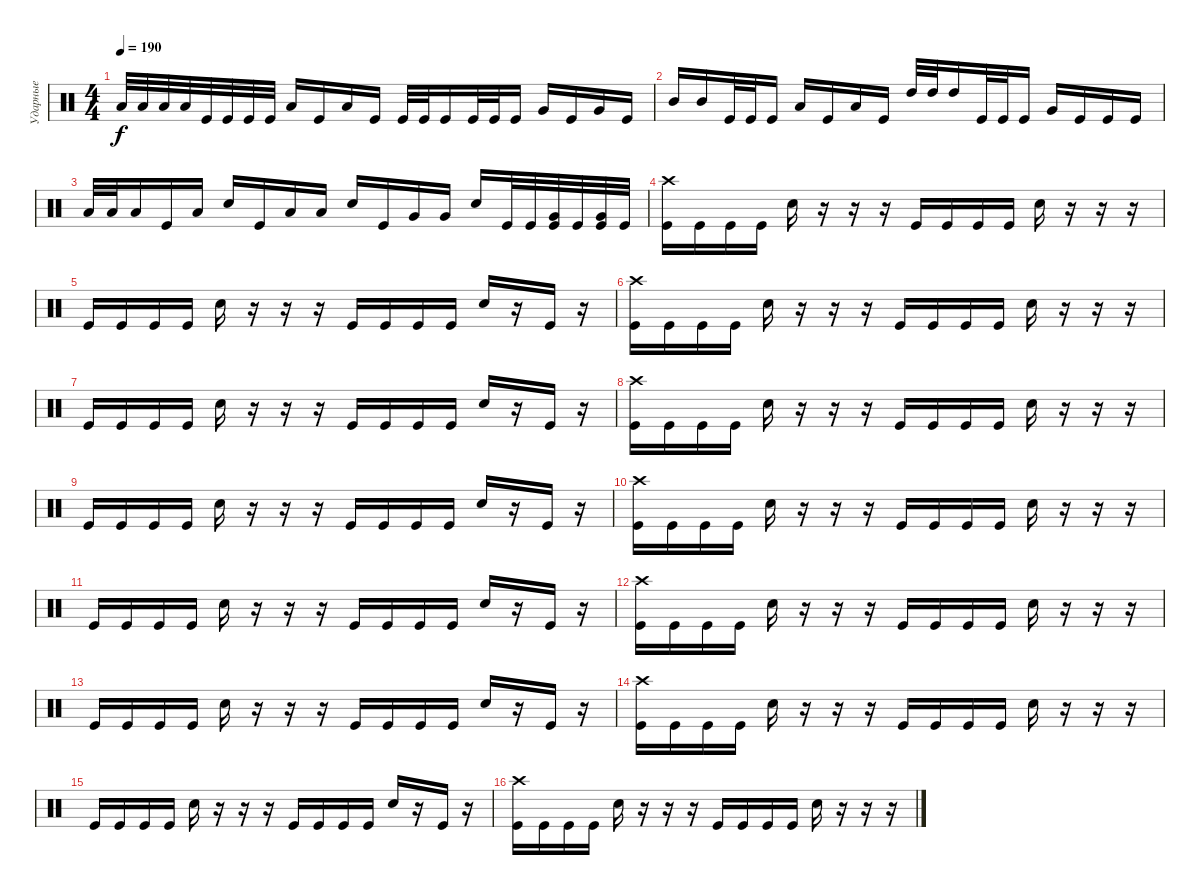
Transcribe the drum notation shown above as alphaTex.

\track ("Ударные" "Ударные") {instrument percussion}
\staff {score}
\articulation defaults
\ts (4 4)
\tempo 190
\clef neutral
\ks c "Low Tom (hit)".32{dy f} "Low Tom (hit)".32 "Low Tom (hit)".32 "Low Tom (hit)".32 "Kick (hit)".32 "Kick (hit)".32 "Kick (hit)".32 "Kick (hit)".32 "Low Tom (hit)".16 "Kick (hit)".16 "Low Tom (hit)".16 "Kick (hit)".16 "Kick (hit)".32 "Kick (hit)".32 "Kick (hit)".16 "Kick (hit)".32 "Kick (hit)".32 "Kick (hit)".16 "Very Low Tom (hit)".16 "Kick (hit)".16 "Very Low Tom (hit)".16 "Kick (hit)".16
|
"Mid Tom (hit)".16 "Mid Tom (hit)".16 "Kick (hit)".32 "Kick (hit)".32 "Kick (hit)".16 "Low Tom (hit)".16 "Kick (hit)".16 "Low Tom (hit)".16 "Kick (hit)".16 "High Tom (hit)".32 "High Tom (hit)".32 "High Tom (hit)".16 "Kick (hit)".32 "Kick (hit)".32 "Kick (hit)".16 "Very Low Tom (hit)".16 "Kick (hit)".16 "Kick (hit)".16 "Kick (hit)".16 |
"Low Tom (hit)".32 "Low Tom (hit)".32 "Low Tom (hit)".16 "Kick (hit)".16 "Low Tom (hit)".16 "Electric Snare (hit)".16 "Kick (hit)".16 "Low Tom (hit)".16 "Low Tom (hit)".16 "Electric Snare (hit)".16 "Kick (hit)".16 "Very Low Tom (hit)".16 "Very Low Tom (hit)".16 "Electric Snare (hit)".16 "Kick (hit)".32 "Kick (hit)".32 ("Very Low Tom (hit)" "Kick (hit)").32 "Kick (hit)".32 ("Very Low Tom (hit)" "Kick (hit)").32 "Kick (hit)".32 |
("Crash high (hit)" "Kick (hit)").16 "Kick (hit)".16 "Kick (hit)".16 "Kick (hit)".16 "Electric Snare (hit)".16 r.16 r.16 r.16 "Kick (hit)".16 "Kick (hit)".16 "Kick (hit)".16 "Kick (hit)".16 "Electric Snare (hit)".16 r.16 r.16 r.16 |
"Kick (hit)".16 "Kick (hit)".16 "Kick (hit)".16 "Kick (hit)".16 "Electric Snare (hit)".16 r.16 r.16 r.16 "Kick (hit)".16 "Kick (hit)".16 "Kick (hit)".16 "Kick (hit)".16 "Electric Snare (hit)".16 r.16 "Kick (hit)".16 r.16 |
("Crash high (hit)" "Kick (hit)").16 "Kick (hit)".16 "Kick (hit)".16 "Kick (hit)".16 "Electric Snare (hit)".16 r.16 r.16 r.16 "Kick (hit)".16 "Kick (hit)".16 "Kick (hit)".16 "Kick (hit)".16 "Electric Snare (hit)".16 r.16 r.16 r.16 |
"Kick (hit)".16 "Kick (hit)".16 "Kick (hit)".16 "Kick (hit)".16 "Electric Snare (hit)".16 r.16 r.16 r.16 "Kick (hit)".16 "Kick (hit)".16 "Kick (hit)".16 "Kick (hit)".16 "Electric Snare (hit)".16 r.16 "Kick (hit)".16 r.16 |
("Crash high (hit)" "Kick (hit)").16 "Kick (hit)".16 "Kick (hit)".16 "Kick (hit)".16 "Electric Snare (hit)".16 r.16 r.16 r.16 "Kick (hit)".16 "Kick (hit)".16 "Kick (hit)".16 "Kick (hit)".16 "Electric Snare (hit)".16 r.16 r.16 r.16 |
"Kick (hit)".16 "Kick (hit)".16 "Kick (hit)".16 "Kick (hit)".16 "Electric Snare (hit)".16 r.16 r.16 r.16 "Kick (hit)".16 "Kick (hit)".16 "Kick (hit)".16 "Kick (hit)".16 "Electric Snare (hit)".16 r.16 "Kick (hit)".16 r.16 |
("Crash high (hit)" "Kick (hit)").16 "Kick (hit)".16 "Kick (hit)".16 "Kick (hit)".16 "Electric Snare (hit)".16 r.16 r.16 r.16 "Kick (hit)".16 "Kick (hit)".16 "Kick (hit)".16 "Kick (hit)".16 "Electric Snare (hit)".16 r.16 r.16 r.16 |
"Kick (hit)".16 "Kick (hit)".16 "Kick (hit)".16 "Kick (hit)".16 "Electric Snare (hit)".16 r.16 r.16 r.16 "Kick (hit)".16 "Kick (hit)".16 "Kick (hit)".16 "Kick (hit)".16 "Electric Snare (hit)".16 r.16 "Kick (hit)".16 r.16 |
("Crash high (hit)" "Kick (hit)").16 "Kick (hit)".16 "Kick (hit)".16 "Kick (hit)".16 "Electric Snare (hit)".16 r.16 r.16 r.16 "Kick (hit)".16 "Kick (hit)".16 "Kick (hit)".16 "Kick (hit)".16 "Electric Snare (hit)".16 r.16 r.16 r.16 |
"Kick (hit)".16 "Kick (hit)".16 "Kick (hit)".16 "Kick (hit)".16 "Electric Snare (hit)".16 r.16 r.16 r.16 "Kick (hit)".16 "Kick (hit)".16 "Kick (hit)".16 "Kick (hit)".16 "Electric Snare (hit)".16 r.16 "Kick (hit)".16 r.16 |
("Crash high (hit)" "Kick (hit)").16 "Kick (hit)".16 "Kick (hit)".16 "Kick (hit)".16 "Electric Snare (hit)".16 r.16 r.16 r.16 "Kick (hit)".16 "Kick (hit)".16 "Kick (hit)".16 "Kick (hit)".16 "Electric Snare (hit)".16 r.16 r.16 r.16 |
"Kick (hit)".16 "Kick (hit)".16 "Kick (hit)".16 "Kick (hit)".16 "Electric Snare (hit)".16 r.16 r.16 r.16 "Kick (hit)".16 "Kick (hit)".16 "Kick (hit)".16 "Kick (hit)".16 "Electric Snare (hit)".16 r.16 "Kick (hit)".16 r.16 |
("Crash high (hit)" "Kick (hit)").16 "Kick (hit)".16 "Kick (hit)".16 "Kick (hit)".16 "Electric Snare (hit)".16 r.16 r.16 r.16 "Kick (hit)".16 "Kick (hit)".16 "Kick (hit)".16 "Kick (hit)".16 "Electric Snare (hit)".16 r.16 r.16 r.16
